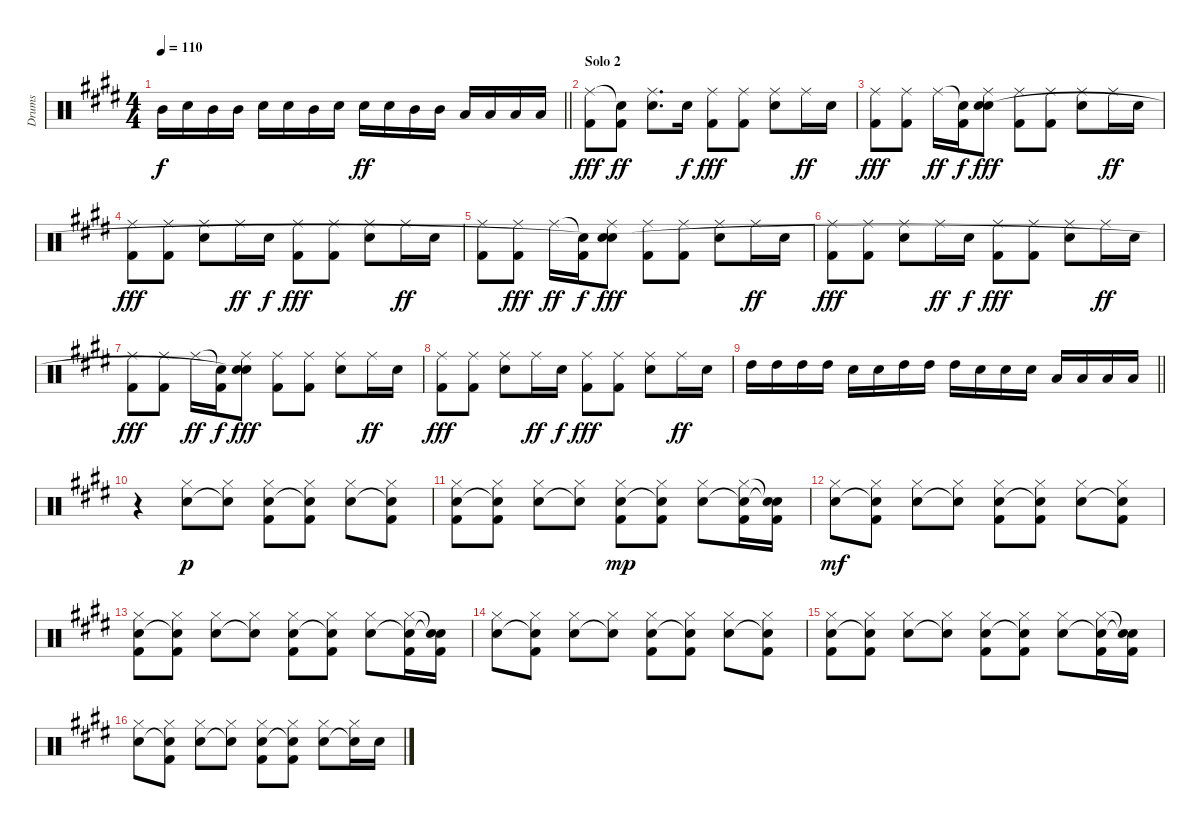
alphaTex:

\track ("Drums" "Drums") {instrument percussion}
\staff {score}
\articulation defaults
\ts (4 4)
\tempo 110
\clef neutral
\barLineRight lightlight
\ks c#minor "Mid Tom (hit)".16{dy f} "Electric Snare (hit)".16 "Mid Tom (hit)".16 "Mid Tom (hit)".16 "Electric Snare (hit)".16 "Electric Snare (hit)".16 "Mid Tom (hit)".16 "Electric Snare (hit)".16 "Electric Snare (hit)".16{dy ff} "Electric Snare (hit)".16 "Mid Tom (hit)".16 "Mid Tom (hit)".16 "Low Tom (hit)".16 "Low Tom (hit)".16 "Low Tom (hit)".16 "Low Tom (hit)".16
|
\section ("" "Solo 2")
("Ride (middle)" "Kick (hit) 2").8{dy fff} ("Snare (hit)"{t} "Kick (hit) 2").8{dy ff} ("Ride (middle)" "Electric Snare (hit)").8{d} "Electric Snare (hit)".16{dy f} ("Ride (middle)" "Kick (hit) 2").8{dy fff} ("Ride (middle)" "Kick (hit) 2").8 ("Ride (middle)" "Electric Snare (hit)").8 "Ride (middle)".16{dy ff} "Electric Snare (hit)".16 |
("Ride (middle)" "Kick (hit) 2").8{dy fff} ("Ride (middle)" "Kick (hit) 2").8 "Ride (middle)".16{dy ff} ("Snare (hit)"{t} "Kick (hit) 2").16{dy f} ("Ride (middle)" "Electric Snare (hit)" "Snare (hit)").8{dy fff} ("Ride (middle)" "Kick (hit) 2").8 ("Ride (middle)" "Kick (hit) 2").8 ("Ride (middle)" "Electric Snare (hit)").8 "Ride (middle)".16{dy ff} "Electric Snare (hit)".16 |
("Ride (middle)" "Kick (hit) 2").8{dy fff} ("Ride (middle)" "Kick (hit) 2").8 ("Ride (middle)" "Electric Snare (hit)").8 "Ride (middle)".16{dy ff} "Electric Snare (hit)".16{dy f} ("Ride (middle)" "Kick (hit) 2").8{dy fff} ("Ride (middle)" "Kick (hit) 2").8 ("Ride (middle)" "Electric Snare (hit)").8 "Ride (middle)".16{dy ff} "Electric Snare (hit)".16 |
("Ride (middle)" "Kick (hit) 2").8 ("Ride (middle)" "Kick (hit) 2").8{dy fff} "Ride (middle)".16{dy ff} ("Snare (hit)"{t} "Kick (hit) 2").16{dy f} ("Ride (middle)" "Electric Snare (hit)" "Snare (hit)"{t}).8{dy fff} ("Ride (middle)" "Kick (hit) 2").8 ("Ride (middle)" "Kick (hit) 2").8 ("Ride (middle)" "Electric Snare (hit)").8 "Ride (middle)".16{dy ff} "Electric Snare (hit)".16 |
("Ride (middle)" "Kick (hit) 2").8{dy fff} ("Ride (middle)" "Kick (hit) 2").8 ("Ride (middle)" "Electric Snare (hit)").8 "Ride (middle)".16{dy ff} "Electric Snare (hit)".16{dy f} ("Ride (middle)" "Kick (hit) 2").8{dy fff} ("Ride (middle)" "Kick (hit) 2").8 ("Ride (middle)" "Electric Snare (hit)").8 "Ride (middle)".16{dy ff} "Electric Snare (hit)".16 |
("Ride (middle)" "Kick (hit) 2").8{dy fff} ("Ride (middle)" "Kick (hit) 2").8 "Ride (middle)".16{dy ff} ("Snare (hit)"{t} "Kick (hit) 2").16{dy f} ("Ride (middle)" "Electric Snare (hit)" "Snare (hit)"{t}).8{dy fff} ("Ride (middle)" "Kick (hit) 2").8 ("Ride (middle)" "Kick (hit) 2").8 ("Ride (middle)" "Electric Snare (hit)").8 "Ride (middle)".16{dy ff} "Electric Snare (hit)".16 |
("Ride (middle)" "Kick (hit) 2").8{dy fff} ("Ride (middle)" "Kick (hit) 2").8 ("Ride (middle)" "Electric Snare (hit)").8 "Ride (middle)".16{dy ff} "Electric Snare (hit)".16{dy f} ("Ride (middle)" "Kick (hit) 2").8{dy fff} ("Ride (middle)" "Kick (hit) 2").8 ("Ride (middle)" "Electric Snare (hit)").8 "Ride (middle)".16{dy ff} "Electric Snare (hit)".16 |
\barLineRight lightlight "High Tom (hit)".16 "High Tom (hit)".16 "High Tom (hit)".16 "High Tom (hit)".16 "Electric Snare (hit)".16 "Electric Snare (hit)".16 "High Tom (hit)".16 "High Tom (hit)".16 "High Tom (hit)".16 "Electric Snare (hit)".16 "Electric Snare (hit)".16 "Electric Snare (hit)".16 "Low Tom (hit)".16 "Low Tom (hit)".16 "Low Tom (hit)".16 "Low Tom (hit)".16
|
r.4 ("Hi-Hat (closed)" "Electric Snare (hit)").8{dy p} ("Hi-Hat (closed)" "Snare (hit)"{t}).8 ("Hi-Hat (closed)" "Electric Snare (hit)" "Kick (hit) 2").8 ("Hi-Hat (closed)" "Snare (hit)"{t} "Kick (hit) 2").8 ("Hi-Hat (closed)" "Electric Snare (hit)").8 ("Hi-Hat (closed)" "Snare (hit)"{t} "Kick (hit) 2").8 |
("Hi-Hat (closed)" "Electric Snare (hit)" "Kick (hit) 2").8 ("Hi-Hat (closed)" "Snare (hit)"{t} "Kick (hit) 2").8 ("Hi-Hat (closed)" "Electric Snare (hit)").8 ("Hi-Hat (closed)" "Snare (hit)"{t}).8 ("Hi-Hat (closed)" "Electric Snare (hit)" "Kick (hit) 2").8{dy mp} ("Hi-Hat (closed)" "Snare (hit)"{t} "Kick (hit) 2").8 ("Hi-Hat (closed)" "Electric Snare (hit)").8 ("Hi-Hat (closed)" "Snare (hit)"{t} "Kick (hit) 2").16 ("Snare (hit)"{t} "Snare (hit)"{t} "Kick (hit) 2").16 |
("Hi-Hat (closed)" "Electric Snare (hit)").8{dy mf} ("Hi-Hat (closed)" "Snare (hit)"{t} "Kick (hit) 2").8 ("Hi-Hat (closed)" "Electric Snare (hit)").8 ("Hi-Hat (closed)" "Snare (hit)"{t}).8 ("Hi-Hat (closed)" "Electric Snare (hit)" "Kick (hit) 2").8 ("Hi-Hat (closed)" "Snare (hit)"{t} "Kick (hit) 2").8 ("Hi-Hat (closed)" "Electric Snare (hit)").8 ("Hi-Hat (closed)" "Snare (hit)"{t} "Kick (hit) 2").8 |
("Hi-Hat (closed)" "Electric Snare (hit)" "Kick (hit) 2").8 ("Hi-Hat (closed)" "Snare (hit)"{t} "Kick (hit) 2").8 ("Hi-Hat (closed)" "Electric Snare (hit)").8 ("Hi-Hat (closed)" "Snare (hit)"{t}).8 ("Hi-Hat (closed)" "Electric Snare (hit)" "Kick (hit) 2").8 ("Hi-Hat (closed)" "Snare (hit)"{t} "Kick (hit) 2").8 ("Hi-Hat (closed)" "Electric Snare (hit)").8 ("Hi-Hat (closed)" "Snare (hit)"{t} "Kick (hit) 2").16 ("Snare (hit)"{t} "Snare (hit)"{t} "Kick (hit) 2").16 |
("Hi-Hat (closed)" "Electric Snare (hit)").8 ("Hi-Hat (closed)" "Snare (hit)"{t} "Kick (hit) 2").8 ("Hi-Hat (closed)" "Electric Snare (hit)").8 ("Hi-Hat (closed)" "Snare (hit)"{t}).8 ("Hi-Hat (closed)" "Electric Snare (hit)" "Kick (hit) 2").8 ("Hi-Hat (closed)" "Snare (hit)"{t} "Kick (hit) 2").8 ("Hi-Hat (closed)" "Electric Snare (hit)").8 ("Hi-Hat (closed)" "Snare (hit)"{t} "Kick (hit) 2").8 |
("Hi-Hat (closed)" "Electric Snare (hit)" "Kick (hit) 2").8 ("Hi-Hat (closed)" "Snare (hit)"{t} "Kick (hit) 2").8 ("Hi-Hat (closed)" "Electric Snare (hit)").8 ("Hi-Hat (closed)" "Snare (hit)"{t}).8 ("Hi-Hat (closed)" "Electric Snare (hit)" "Kick (hit) 2").8 ("Hi-Hat (closed)" "Snare (hit)"{t} "Kick (hit) 2").8 ("Hi-Hat (closed)" "Electric Snare (hit)").8 ("Hi-Hat (closed)" "Snare (hit)"{t} "Kick (hit) 2").16 ("Snare (hit)"{t} "Snare (hit)"{t} "Kick (hit) 2").16 |
("Hi-Hat (closed)" "Electric Snare (hit)").8 ("Hi-Hat (closed)" "Snare (hit)"{t} "Kick (hit) 2").8 ("Hi-Hat (closed)" "Electric Snare (hit)").8 ("Hi-Hat (closed)" "Snare (hit)"{t}).8 ("Hi-Hat (closed)" "Electric Snare (hit)" "Kick (hit) 2").8 ("Hi-Hat (closed)" "Snare (hit)"{t} "Kick (hit) 2").8 ("Hi-Hat (closed)" "Electric Snare (hit)").8 ("Hi-Hat (closed)" "Snare (hit)"{t}).16 "Electric Snare (hit)".16
